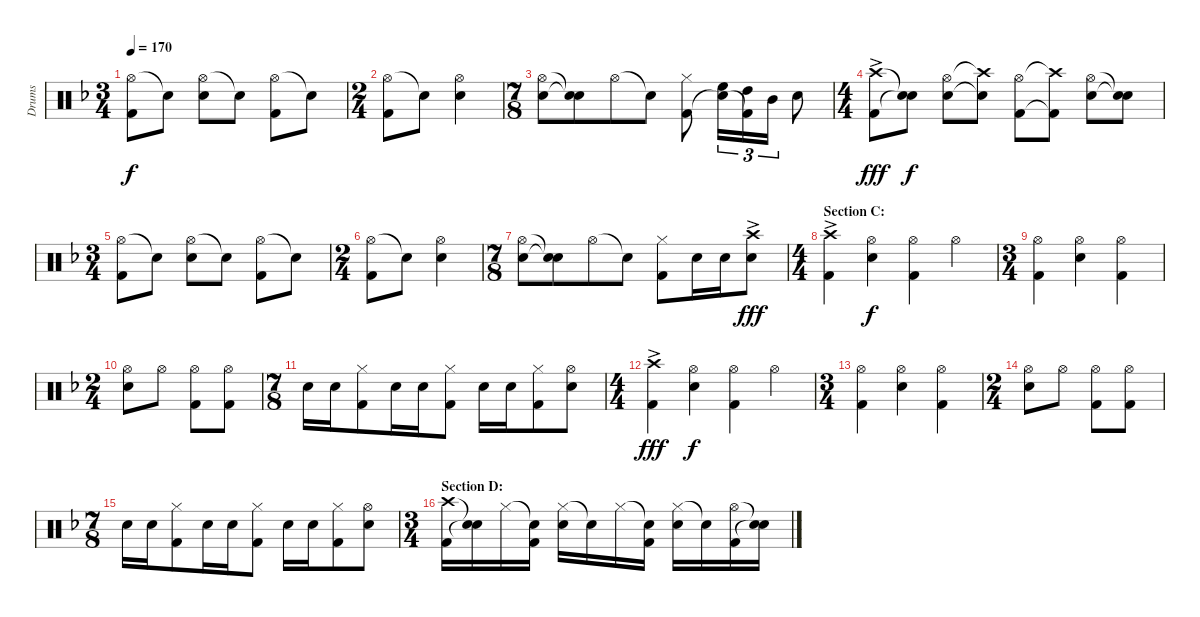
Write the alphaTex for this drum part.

\track ("Drums" "Drums") {instrument percussion}
\staff {score}
\articulation defaults
\ts (3 4)
\tempo 170
\clef neutral
\ks f
("Hi-Hat (open)" "Kick (hit) 2").8{dy f} "Snare (hit)"{t}.8 ("Hi-Hat (open)" "Snare (hit) 2").8 "Snare (hit)"{t}.8 ("Hi-Hat (open)" "Kick (hit) 2").8 "Snare (hit)"{t}.8 |
\ts (2 4)
("Hi-Hat (open)" "Kick (hit) 2").8 "Snare (hit)"{t}.8 ("Hi-Hat (open)" "Snare (hit) 2").4 |
\ts (7 8)
("Hi-Hat (open)" "Snare (hit) 2").8 ("Snare (hit)"{t} "Snare (hit)"{t}).8 "Hi-Hat (open)".8 "Snare (hit)"{t}.8 ("Hi-Hat (closed)" "Kick (hit) 2").8 ("High Floor Tom (hit)" "Snare (hit)"{t}).16{tu (3 2)} ("High Tom (hit)" "Kick (hit) 2"{t}).16{tu (3 2)} "Mid Tom (hit)".16{tu (3 2)} "Snare (hit) 2".8 |
\ts (4 4)
("Crash high (hit)"{ac} "Kick (hit) 2").8{dy fff} ("Snare (hit)"{t} "Snare (hit)"{t}).8{dy f} ("Hi-Hat (open)" "Snare (hit) 2").8 ("Crash high (hit)"{t} "Snare (hit)"{t}).8 ("Hi-Hat (open)" "Kick (hit) 2").8 ("Crash high (hit)"{t} "Kick (hit) 2"{t}).8 ("Hi-Hat (open)" "Snare (hit) 2").8 ("Snare (hit)"{t} "Snare (hit)"{t}).8 |
\ts (3 4)
("Hi-Hat (open)" "Kick (hit) 2").8 "Snare (hit)"{t}.8 ("Hi-Hat (open)" "Snare (hit) 2").8 "Snare (hit)"{t}.8 ("Hi-Hat (open)" "Kick (hit) 2").8 "Snare (hit)"{t}.8 |
\ts (2 4)
("Hi-Hat (open)" "Kick (hit) 2").8 "Snare (hit)"{t}.8 ("Hi-Hat (open)" "Snare (hit) 2").4 |
\ts (7 8)
("Hi-Hat (open)" "Snare (hit) 2").8 ("Snare (hit)"{t} "Snare (hit)"{t}).8 "Hi-Hat (open)".8 "Snare (hit)"{t}.8 ("Hi-Hat (closed)" "Kick (hit) 2").8 "Snare (hit) 2".16 "Snare (hit) 2".16 ("Crash high (hit)"{ac} "Snare (hit) 2").8{dy fff} |
\ts (4 4)
\section ("" "Section C:")
("Crash high (hit)"{ac} "Kick (hit) 2").4 ("Hi-Hat (open)" "Snare (hit) 2").4{dy f} ("Hi-Hat (open)" "Kick (hit) 2").4 "Hi-Hat (open)".4 |
\ts (3 4)
("Hi-Hat (open)" "Kick (hit) 2").4 ("Hi-Hat (open)" "Snare (hit) 2").4 ("Hi-Hat (open)" "Kick (hit) 2").4 |
\ts (2 4)
("Hi-Hat (open)" "Snare (hit) 2").8 "Hi-Hat (open)".8 ("Hi-Hat (open)" "Kick (hit) 2").8 ("Hi-Hat (open)" "Kick (hit) 2").8 |
\ts (7 8)
"Snare (hit) 2".16 "Snare (hit) 2".16 ("Hi-Hat (closed)" "Kick (hit) 2").8 "Snare (hit) 2".16 "Snare (hit) 2".16 ("Hi-Hat (closed)" "Kick (hit) 2").8 "Snare (hit) 2".16 "Snare (hit) 2".16 ("Hi-Hat (closed)" "Kick (hit) 2").8 ("Hi-Hat (open)" "Snare (hit) 2").8 |
\ts (4 4)
("Crash high (hit)"{ac} "Kick (hit) 2").4{dy fff} ("Hi-Hat (open)" "Snare (hit) 2").4{dy f} ("Hi-Hat (open)" "Kick (hit) 2").4 "Hi-Hat (open)".4 |
\ts (3 4)
("Hi-Hat (open)" "Kick (hit) 2").4 ("Hi-Hat (open)" "Snare (hit) 2").4 ("Hi-Hat (open)" "Kick (hit) 2").4 |
\ts (2 4)
("Hi-Hat (open)" "Snare (hit) 2").8 "Hi-Hat (open)".8 ("Hi-Hat (open)" "Kick (hit) 2").8 ("Hi-Hat (open)" "Kick (hit) 2").8 |
\ts (7 8)
"Snare (hit) 2".16 "Snare (hit) 2".16 ("Hi-Hat (closed)" "Kick (hit) 2").8 "Snare (hit) 2".16 "Snare (hit) 2".16 ("Hi-Hat (closed)" "Kick (hit) 2").8 "Snare (hit) 2".16 "Snare (hit) 2".16 ("Hi-Hat (closed)" "Kick (hit) 2").8 ("Hi-Hat (open)" "Snare (hit) 2").8 |
\ts (3 4)
\section ("" "Section D:")
("Crash high (hit)" "Kick (hit) 2").16 ("Snare (hit)"{t} "Snare (hit)"{t}).16 "Hi-Hat (closed)".16 ("Snare (hit)"{t} "Kick (hit) 2").16 ("Hi-Hat (closed)" "Snare (hit) 2").16 "Snare (hit)"{t}.16 "Hi-Hat (closed)".16 ("Snare (hit)"{t} "Kick (hit) 2").16 ("Hi-Hat (closed)" "Snare (hit) 2").16 "Snare (hit)"{t}.16 ("Hi-Hat (open)" "Kick (hit) 2").16 ("Snare (hit)"{t} "Snare (hit)"{t}).16
